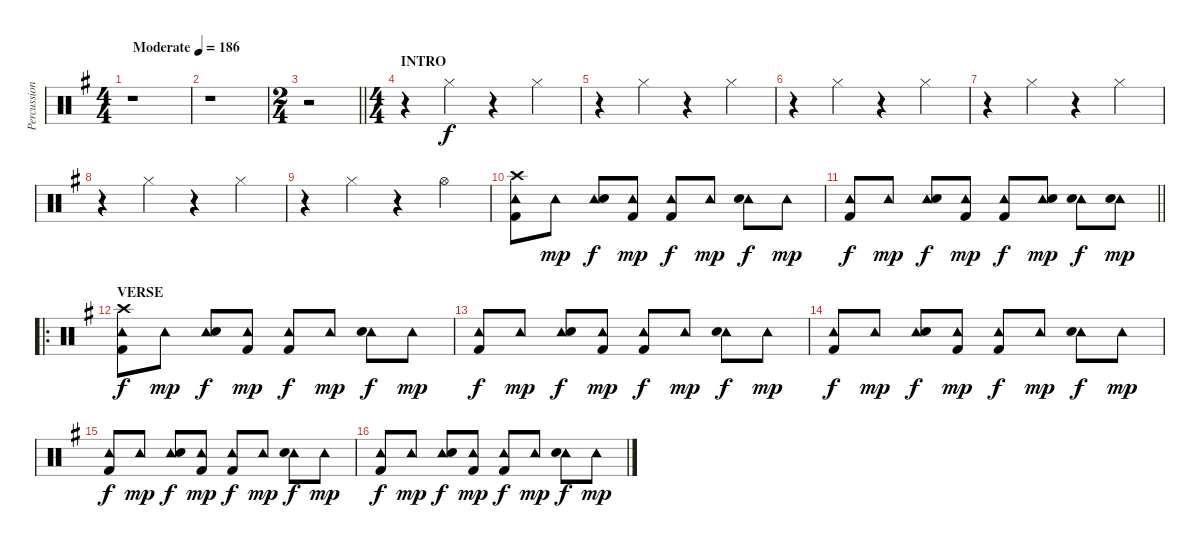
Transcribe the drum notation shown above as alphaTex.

\track ("Percussion" "Percussion") {instrument percussion}
\staff {score}
\articulation defaults
\ts (4 4)
\tempo (186 "Moderate")
\clef neutral
\ks g
r.1{dy f} |
r.1 |
\ts (2 4)
\barLineRight lightlight
r.2 |
\ts (4 4)
\section ("" "INTRO")
r.4 "Hi-Hat (closed)".4 r.4 "Hi-Hat (closed)".4 |
r.4 "Hi-Hat (closed)".4 r.4 "Hi-Hat (closed)".4 |
r.4 "Hi-Hat (closed)".4 r.4 "Hi-Hat (closed)".4 |
r.4 "Hi-Hat (closed)".4 r.4 "Hi-Hat (closed)".4 |
r.4 "Hi-Hat (closed)".4 r.4 "Hi-Hat (closed)".4 |
r.4 "Hi-Hat (closed)".4 r.4 "Hi-Hat (open)".4 |
("Crash high (hit)" "Tambourine (hit)" "Kick (hit) 2").8 "Tambourine (hit)".8{dy mp} ("Tambourine (hit)" "Electric Snare (hit)").8{dy f} ("Tambourine (hit)" "Kick (hit) 2").8{dy mp} ("Tambourine (hit)" "Kick (hit) 2").8{dy f} "Tambourine (hit)".8{dy mp} ("Tambourine (hit)" "Electric Snare (hit)").8{dy f} "Tambourine (hit)".8{dy mp} |
\barLineRight lightlight
("Tambourine (hit)" "Kick (hit) 2").8{dy f} "Tambourine (hit)".8{dy mp} ("Tambourine (hit)" "Electric Snare (hit)").8{dy f} ("Tambourine (hit)" "Kick (hit) 2").8{dy mp} ("Tambourine (hit)" "Kick (hit) 2").8{dy f} ("Tambourine (hit)" "Electric Snare (hit)").8{dy mp} ("Tambourine (hit)" "Electric Snare (hit)").8{dy f} ("Tambourine (hit)" "Electric Snare (hit)").8{dy mp} |
\ro
\section ("" "VERSE")
("Crash high (hit)" "Tambourine (hit)" "Kick (hit) 2").8{dy f} "Tambourine (hit)".8{dy mp} ("Tambourine (hit)" "Electric Snare (hit)").8{dy f} ("Tambourine (hit)" "Kick (hit) 2").8{dy mp} ("Tambourine (hit)" "Kick (hit) 2").8{dy f} "Tambourine (hit)".8{dy mp} ("Tambourine (hit)" "Electric Snare (hit)").8{dy f} "Tambourine (hit)".8{dy mp} |
("Tambourine (hit)" "Kick (hit) 2").8{dy f} "Tambourine (hit)".8{dy mp} ("Tambourine (hit)" "Electric Snare (hit)").8{dy f} ("Tambourine (hit)" "Kick (hit) 2").8{dy mp} ("Tambourine (hit)" "Kick (hit) 2").8{dy f} "Tambourine (hit)".8{dy mp} ("Tambourine (hit)" "Electric Snare (hit)").8{dy f} "Tambourine (hit)".8{dy mp} |
("Tambourine (hit)" "Kick (hit) 2").8{dy f} "Tambourine (hit)".8{dy mp} ("Tambourine (hit)" "Electric Snare (hit)").8{dy f} ("Tambourine (hit)" "Kick (hit) 2").8{dy mp} ("Tambourine (hit)" "Kick (hit) 2").8{dy f} "Tambourine (hit)".8{dy mp} ("Tambourine (hit)" "Electric Snare (hit)").8{dy f} "Tambourine (hit)".8{dy mp} |
("Tambourine (hit)" "Kick (hit) 2").8{dy f} "Tambourine (hit)".8{dy mp} ("Tambourine (hit)" "Electric Snare (hit)").8{dy f} ("Tambourine (hit)" "Kick (hit) 2").8{dy mp} ("Tambourine (hit)" "Kick (hit) 2").8{dy f} "Tambourine (hit)".8{dy mp} ("Tambourine (hit)" "Electric Snare (hit)").8{dy f} "Tambourine (hit)".8{dy mp} |
("Tambourine (hit)" "Kick (hit) 2").8{dy f} "Tambourine (hit)".8{dy mp} ("Tambourine (hit)" "Electric Snare (hit)").8{dy f} ("Tambourine (hit)" "Kick (hit) 2").8{dy mp} ("Tambourine (hit)" "Kick (hit) 2").8{dy f} "Tambourine (hit)".8{dy mp} ("Tambourine (hit)" "Electric Snare (hit)").8{dy f} "Tambourine (hit)".8{dy mp}
